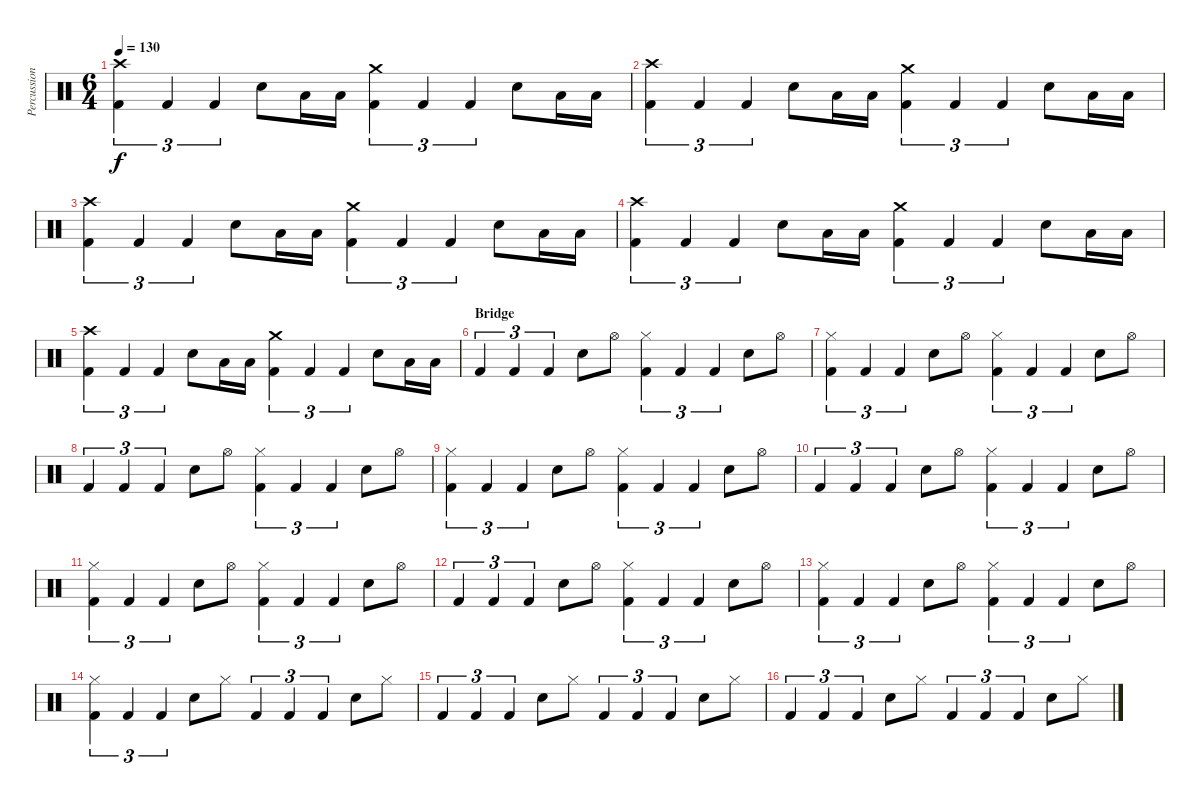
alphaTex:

\track ("Percussion" "Percussion") {instrument percussion}
\staff {score}
\articulation defaults
\ts (6 4)
\tempo 130
\clef neutral
\ks c
("Crash high (hit)" "Kick (hit) 2").4{tu (3 2) dy f} "Kick (hit) 2".4{tu (3 2)} "Kick (hit) 2".4{tu (3 2)} "Electric Snare (hit)".8 "Low Floor Tom (hit)".16 "Low Floor Tom (hit)".16 ("Crash medium (hit)" "Kick (hit) 2").4{tu (3 2)} "Kick (hit) 2".4{tu (3 2)} "Kick (hit) 2".4{tu (3 2)} "Electric Snare (hit)".8 "Low Tom (hit)".16 "Low Tom (hit)".16 |
("Crash high (hit)" "Kick (hit) 2").4{tu (3 2)} "Kick (hit) 2".4{tu (3 2)} "Kick (hit) 2".4{tu (3 2)} "Electric Snare (hit)".8 "Low Floor Tom (hit)".16 "Low Floor Tom (hit)".16 ("Crash medium (hit)" "Kick (hit) 2").4{tu (3 2)} "Kick (hit) 2".4{tu (3 2)} "Kick (hit) 2".4{tu (3 2)} "Electric Snare (hit)".8 "Low Tom (hit)".16 "Low Tom (hit)".16 |
("Crash high (hit)" "Kick (hit) 2").4{tu (3 2)} "Kick (hit) 2".4{tu (3 2)} "Kick (hit) 2".4{tu (3 2)} "Electric Snare (hit)".8 "Low Floor Tom (hit)".16 "Low Floor Tom (hit)".16 ("Crash medium (hit)" "Kick (hit) 2").4{tu (3 2)} "Kick (hit) 2".4{tu (3 2)} "Kick (hit) 2".4{tu (3 2)} "Electric Snare (hit)".8 "Low Tom (hit)".16 "Low Tom (hit)".16 |
("Crash high (hit)" "Kick (hit) 2").4{tu (3 2)} "Kick (hit) 2".4{tu (3 2)} "Kick (hit) 2".4{tu (3 2)} "Electric Snare (hit)".8 "Low Floor Tom (hit)".16 "Low Floor Tom (hit)".16 ("Crash medium (hit)" "Kick (hit) 2").4{tu (3 2)} "Kick (hit) 2".4{tu (3 2)} "Kick (hit) 2".4{tu (3 2)} "Electric Snare (hit)".8 "Low Tom (hit)".16 "Low Tom (hit)".16 |
("Crash high (hit)" "Kick (hit) 2").4{tu (3 2)} "Kick (hit) 2".4{tu (3 2)} "Kick (hit) 2".4{tu (3 2)} "Electric Snare (hit)".8 "Low Floor Tom (hit)".16 "Low Floor Tom (hit)".16 ("Crash medium (hit)" "Kick (hit) 2").4{tu (3 2)} "Kick (hit) 2".4{tu (3 2)} "Kick (hit) 2".4{tu (3 2)} "Electric Snare (hit)".8 "Low Tom (hit)".16 "Low Tom (hit)".16 |
\section ("" "Bridge")
"Kick (hit) 2".4{tu (3 2)} "Kick (hit) 2".4{tu (3 2)} "Kick (hit) 2".4{tu (3 2)} "Electric Snare (hit)".8 "Hi-Hat (open)".8 ("Hi-Hat (closed)" "Kick (hit) 2").4{tu (3 2)} "Kick (hit) 2".4{tu (3 2)} "Kick (hit) 2".4{tu (3 2)} "Electric Snare (hit)".8 "Hi-Hat (open)".8 |
("Hi-Hat (closed)" "Kick (hit) 2").4{tu (3 2)} "Kick (hit) 2".4{tu (3 2)} "Kick (hit) 2".4{tu (3 2)} "Electric Snare (hit)".8 "Hi-Hat (open)".8 ("Hi-Hat (closed)" "Kick (hit) 2").4{tu (3 2)} "Kick (hit) 2".4{tu (3 2)} "Kick (hit) 2".4{tu (3 2)} "Electric Snare (hit)".8 "Hi-Hat (open)".8 |
\section ("" "")
"Kick (hit) 2".4{tu (3 2)} "Kick (hit) 2".4{tu (3 2)} "Kick (hit) 2".4{tu (3 2)} "Electric Snare (hit)".8 "Hi-Hat (open)".8 ("Hi-Hat (closed)" "Kick (hit) 2").4{tu (3 2)} "Kick (hit) 2".4{tu (3 2)} "Kick (hit) 2".4{tu (3 2)} "Electric Snare (hit)".8 "Hi-Hat (open)".8 |
("Hi-Hat (closed)" "Kick (hit) 2").4{tu (3 2)} "Kick (hit) 2".4{tu (3 2)} "Kick (hit) 2".4{tu (3 2)} "Electric Snare (hit)".8 "Hi-Hat (open)".8 ("Hi-Hat (closed)" "Kick (hit) 2").4{tu (3 2)} "Kick (hit) 2".4{tu (3 2)} "Kick (hit) 2".4{tu (3 2)} "Electric Snare (hit)".8 "Hi-Hat (open)".8 |
"Kick (hit) 2".4{tu (3 2)} "Kick (hit) 2".4{tu (3 2)} "Kick (hit) 2".4{tu (3 2)} "Electric Snare (hit)".8 "Hi-Hat (open)".8 ("Hi-Hat (closed)" "Kick (hit) 2").4{tu (3 2)} "Kick (hit) 2".4{tu (3 2)} "Kick (hit) 2".4{tu (3 2)} "Electric Snare (hit)".8 "Hi-Hat (open)".8 |
("Hi-Hat (closed)" "Kick (hit) 2").4{tu (3 2)} "Kick (hit) 2".4{tu (3 2)} "Kick (hit) 2".4{tu (3 2)} "Electric Snare (hit)".8 "Hi-Hat (open)".8 ("Hi-Hat (closed)" "Kick (hit) 2").4{tu (3 2)} "Kick (hit) 2".4{tu (3 2)} "Kick (hit) 2".4{tu (3 2)} "Electric Snare (hit)".8 "Hi-Hat (open)".8 |
"Kick (hit) 2".4{tu (3 2)} "Kick (hit) 2".4{tu (3 2)} "Kick (hit) 2".4{tu (3 2)} "Electric Snare (hit)".8 "Hi-Hat (open)".8 ("Hi-Hat (closed)" "Kick (hit) 2").4{tu (3 2)} "Kick (hit) 2".4{tu (3 2)} "Kick (hit) 2".4{tu (3 2)} "Electric Snare (hit)".8 "Hi-Hat (open)".8 |
("Hi-Hat (closed)" "Kick (hit) 2").4{tu (3 2)} "Kick (hit) 2".4{tu (3 2)} "Kick (hit) 2".4{tu (3 2)} "Electric Snare (hit)".8 "Hi-Hat (open)".8 ("Hi-Hat (closed)" "Kick (hit) 2").4{tu (3 2)} "Kick (hit) 2".4{tu (3 2)} "Kick (hit) 2".4{tu (3 2)} "Electric Snare (hit)".8 "Hi-Hat (open)".8 |
("Hi-Hat (closed)" "Kick (hit) 2").4{tu (3 2)} "Kick (hit) 2".4{tu (3 2)} "Kick (hit) 2".4{tu (3 2)} "Electric Snare (hit)".8 "Hi-Hat (closed)".8 "Kick (hit) 2".4{tu (3 2)} "Kick (hit) 2".4{tu (3 2)} "Kick (hit) 2".4{tu (3 2)} "Electric Snare (hit)".8 "Hi-Hat (closed)".8 |
"Kick (hit) 2".4{tu (3 2)} "Kick (hit) 2".4{tu (3 2)} "Kick (hit) 2".4{tu (3 2)} "Electric Snare (hit)".8 "Hi-Hat (closed)".8 "Kick (hit) 2".4{tu (3 2)} "Kick (hit) 2".4{tu (3 2)} "Kick (hit) 2".4{tu (3 2)} "Electric Snare (hit)".8 "Hi-Hat (closed)".8 |
"Kick (hit) 2".4{tu (3 2)} "Kick (hit) 2".4{tu (3 2)} "Kick (hit) 2".4{tu (3 2)} "Electric Snare (hit)".8 "Hi-Hat (closed)".8 "Kick (hit) 2".4{tu (3 2)} "Kick (hit) 2".4{tu (3 2)} "Kick (hit) 2".4{tu (3 2)} "Electric Snare (hit)".8 "Hi-Hat (closed)".8
